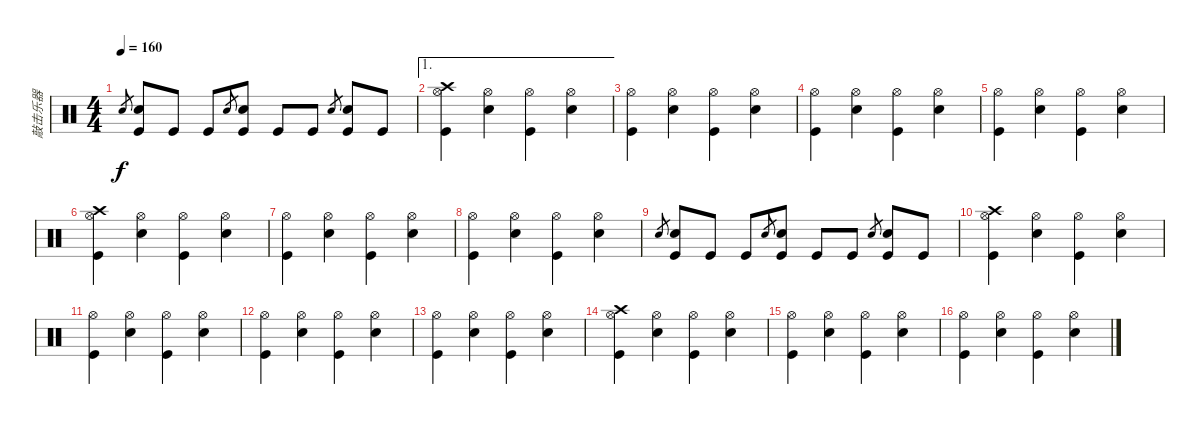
\track ("敲击乐器" "敲击乐器") {instrument percussion}
\staff {score}
\articulation defaults
\ts (4 4)
\tempo 160
\clef neutral
\ks c "Snare (hit) 2".8{gr dy f}
("Snare (hit) 2" "Kick (hit)").8 "Kick (hit)".8 "Kick (hit)".8 "Snare (hit) 2".8{gr} ("Snare (hit) 2" "Kick (hit)").8 "Kick (hit)".8 "Kick (hit)".8 "Snare (hit) 2".8{gr} ("Snare (hit) 2" "Kick (hit)").8 "Kick (hit)".8 |
\ae 1
("Crash high (hit)" "Hi-Hat (open)" "Kick (hit)").4 ("Snare (hit) 2" "Hi-Hat (open)").4 ("Hi-Hat (open)" "Kick (hit)").4 ("Snare (hit) 2" "Hi-Hat (open)").4 |
("Hi-Hat (open)" "Kick (hit)").4 ("Snare (hit) 2" "Hi-Hat (open)").4 ("Hi-Hat (open)" "Kick (hit)").4 ("Snare (hit) 2" "Hi-Hat (open)").4 |
("Hi-Hat (open)" "Kick (hit)").4 ("Snare (hit) 2" "Hi-Hat (open)").4 ("Hi-Hat (open)" "Kick (hit)").4 ("Snare (hit) 2" "Hi-Hat (open)").4 |
("Hi-Hat (open)" "Kick (hit)").4 ("Snare (hit) 2" "Hi-Hat (open)").4 ("Hi-Hat (open)" "Kick (hit)").4 ("Snare (hit) 2" "Hi-Hat (open)").4 |
("Crash high (hit)" "Hi-Hat (open)" "Kick (hit)").4 ("Snare (hit) 2" "Hi-Hat (open)").4 ("Hi-Hat (open)" "Kick (hit)").4 ("Snare (hit) 2" "Hi-Hat (open)").4 |
("Hi-Hat (open)" "Kick (hit)").4 ("Snare (hit) 2" "Hi-Hat (open)").4 ("Hi-Hat (open)" "Kick (hit)").4 ("Snare (hit) 2" "Hi-Hat (open)").4 |
("Hi-Hat (open)" "Kick (hit)").4 ("Snare (hit) 2" "Hi-Hat (open)").4 ("Hi-Hat (open)" "Kick (hit)").4 ("Snare (hit) 2" "Hi-Hat (open)").4 |
"Snare (hit) 2".8{gr} ("Snare (hit) 2" "Kick (hit)").8 "Kick (hit)".8 "Kick (hit)".8 "Snare (hit) 2".8{gr} ("Snare (hit) 2" "Kick (hit)").8 "Kick (hit)".8 "Kick (hit)".8 "Snare (hit) 2".8{gr} ("Snare (hit) 2" "Kick (hit)").8 "Kick (hit)".8 |
("Crash high (hit)" "Hi-Hat (open)" "Kick (hit)").4 ("Snare (hit) 2" "Hi-Hat (open)").4 ("Hi-Hat (open)" "Kick (hit)").4 ("Snare (hit) 2" "Hi-Hat (open)").4 |
("Hi-Hat (open)" "Kick (hit)").4 ("Snare (hit) 2" "Hi-Hat (open)").4 ("Hi-Hat (open)" "Kick (hit)").4 ("Snare (hit) 2" "Hi-Hat (open)").4 |
("Hi-Hat (open)" "Kick (hit)").4 ("Snare (hit) 2" "Hi-Hat (open)").4 ("Hi-Hat (open)" "Kick (hit)").4 ("Snare (hit) 2" "Hi-Hat (open)").4 |
("Hi-Hat (open)" "Kick (hit)").4 ("Snare (hit) 2" "Hi-Hat (open)").4 ("Hi-Hat (open)" "Kick (hit)").4 ("Snare (hit) 2" "Hi-Hat (open)").4 |
("Crash high (hit)" "Hi-Hat (open)" "Kick (hit)").4 ("Snare (hit) 2" "Hi-Hat (open)").4 ("Hi-Hat (open)" "Kick (hit)").4 ("Snare (hit) 2" "Hi-Hat (open)").4 |
("Hi-Hat (open)" "Kick (hit)").4 ("Snare (hit) 2" "Hi-Hat (open)").4 ("Hi-Hat (open)" "Kick (hit)").4 ("Snare (hit) 2" "Hi-Hat (open)").4 |
("Hi-Hat (open)" "Kick (hit)").4 ("Snare (hit) 2" "Hi-Hat (open)").4 ("Hi-Hat (open)" "Kick (hit)").4 ("Snare (hit) 2" "Hi-Hat (open)").4
